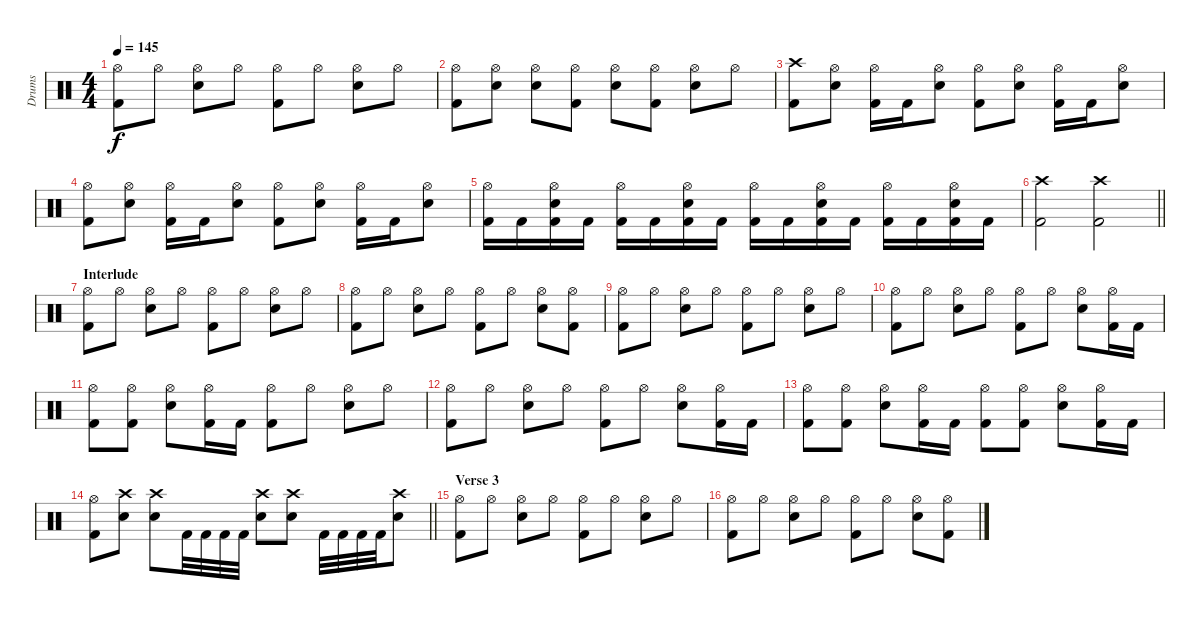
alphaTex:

\track ("Drums" "Drums") {instrument percussion}
\staff {score}
\articulation defaults
\ts (4 4)
\tempo 145
\clef neutral
\ks c
("Hi-Hat (open)" "Kick (hit) 2").8{dy f} "Hi-Hat (open)".8 ("Hi-Hat (open)" "Snare (hit) 2").8 "Hi-Hat (open)".8 ("Hi-Hat (open)" "Kick (hit) 2").8 "Hi-Hat (open)".8 ("Hi-Hat (open)" "Snare (hit) 2").8 "Hi-Hat (open)".8 |
("Hi-Hat (open)" "Kick (hit) 2").8 ("Hi-Hat (open)" "Snare (hit) 2").8 ("Hi-Hat (open)" "Snare (hit) 2").8 ("Hi-Hat (open)" "Kick (hit) 2").8 ("Hi-Hat (open)" "Snare (hit) 2").8 ("Hi-Hat (open)" "Kick (hit) 2").8 ("Hi-Hat (open)" "Snare (hit) 2").8 "Hi-Hat (open)".8 |
("Crash high (hit)" "Kick (hit) 2").8 ("Hi-Hat (open)" "Snare (hit) 2").8 ("Hi-Hat (open)" "Kick (hit) 2").16 "Kick (hit) 2".16 ("Hi-Hat (open)" "Snare (hit) 2").8 ("Hi-Hat (open)" "Kick (hit) 2").8 ("Hi-Hat (open)" "Snare (hit) 2").8 ("Hi-Hat (open)" "Kick (hit) 2").16 "Kick (hit) 2".16 ("Hi-Hat (open)" "Snare (hit) 2").8 |
("Hi-Hat (open)" "Kick (hit) 2").8 ("Hi-Hat (open)" "Snare (hit) 2").8 ("Hi-Hat (open)" "Kick (hit) 2").16 "Kick (hit) 2".16 ("Hi-Hat (open)" "Snare (hit) 2").8 ("Hi-Hat (open)" "Kick (hit) 2").8 ("Hi-Hat (open)" "Snare (hit) 2").8 ("Hi-Hat (open)" "Kick (hit) 2").16 "Kick (hit) 2".16 ("Hi-Hat (open)" "Snare (hit) 2").8 |
("Hi-Hat (open)" "Kick (hit) 2").16 "Kick (hit) 2".16 ("Hi-Hat (open)" "Kick (hit) 2" "Snare (hit) 2").16 "Kick (hit) 2".16 ("Hi-Hat (open)" "Kick (hit) 2").16 "Kick (hit) 2".16 ("Hi-Hat (open)" "Kick (hit) 2" "Snare (hit) 2").16 "Kick (hit) 2".16 ("Hi-Hat (open)" "Kick (hit) 2").16 "Kick (hit) 2".16 ("Hi-Hat (open)" "Kick (hit) 2" "Snare (hit) 2").16 "Kick (hit) 2".16 ("Hi-Hat (open)" "Kick (hit) 2").16 "Kick (hit) 2".16 ("Hi-Hat (open)" "Kick (hit) 2" "Snare (hit) 2").16 "Kick (hit) 2".16 |
\barLineRight lightlight
("Crash high (hit)" "Kick (hit) 2").2 ("Crash high (hit)" "Kick (hit) 2").2 |
\section ("" "Interlude")
("Hi-Hat (open)" "Kick (hit) 2").8 "Hi-Hat (open)".8 ("Hi-Hat (open)" "Snare (hit) 2").8 "Hi-Hat (open)".8 ("Hi-Hat (open)" "Kick (hit) 2").8 "Hi-Hat (open)".8 ("Hi-Hat (open)" "Snare (hit) 2").8 "Hi-Hat (open)".8 |
("Hi-Hat (open)" "Kick (hit) 2").8 "Hi-Hat (open)".8 ("Hi-Hat (open)" "Snare (hit) 2").8 "Hi-Hat (open)".8 ("Hi-Hat (open)" "Kick (hit) 2").8 "Hi-Hat (open)".8 ("Hi-Hat (open)" "Snare (hit) 2").8 ("Hi-Hat (open)" "Kick (hit) 2").8 |
("Hi-Hat (open)" "Kick (hit) 2").8 "Hi-Hat (open)".8 ("Hi-Hat (open)" "Snare (hit) 2").8 "Hi-Hat (open)".8 ("Hi-Hat (open)" "Kick (hit) 2").8 "Hi-Hat (open)".8 ("Hi-Hat (open)" "Snare (hit) 2").8 "Hi-Hat (open)".8 |
("Hi-Hat (open)" "Kick (hit) 2").8 "Hi-Hat (open)".8 ("Hi-Hat (open)" "Snare (hit) 2").8 "Hi-Hat (open)".8 ("Hi-Hat (open)" "Kick (hit) 2").8 "Hi-Hat (open)".8 ("Hi-Hat (open)" "Snare (hit) 2").8 ("Hi-Hat (open)" "Kick (hit) 2").16 "Kick (hit) 2".16 |
("Hi-Hat (open)" "Kick (hit) 2").8 ("Hi-Hat (open)" "Kick (hit) 2").8 ("Hi-Hat (open)" "Snare (hit) 2").8 ("Hi-Hat (open)" "Kick (hit) 2").16 "Kick (hit) 2".16 ("Hi-Hat (open)" "Kick (hit) 2").8 "Hi-Hat (open)".8 ("Hi-Hat (open)" "Snare (hit) 2").8 "Hi-Hat (open)".8 |
("Hi-Hat (open)" "Kick (hit) 2").8 "Hi-Hat (open)".8 ("Hi-Hat (open)" "Snare (hit) 2").8 "Hi-Hat (open)".8 ("Hi-Hat (open)" "Kick (hit) 2").8 "Hi-Hat (open)".8 ("Hi-Hat (open)" "Snare (hit) 2").8 ("Hi-Hat (open)" "Kick (hit) 2").16 "Kick (hit) 2".16 |
("Hi-Hat (open)" "Kick (hit) 2").8 ("Hi-Hat (open)" "Kick (hit) 2").8 ("Hi-Hat (open)" "Snare (hit) 2").8 ("Hi-Hat (open)" "Kick (hit) 2").16 "Kick (hit) 2".16 ("Hi-Hat (open)" "Kick (hit) 2").8 ("Hi-Hat (open)" "Kick (hit) 2").8 ("Hi-Hat (open)" "Snare (hit) 2").8 ("Hi-Hat (open)" "Kick (hit) 2").16 "Kick (hit) 2".16 |
\barLineRight lightlight
("Hi-Hat (open)" "Kick (hit) 2").8 ("Crash high (hit)" "Snare (hit) 2").8 ("Crash high (hit)" "Snare (hit) 2").8 "Kick (hit) 2".32 "Kick (hit) 2".32 "Kick (hit) 2".32 "Kick (hit) 2".32 ("Crash high (hit)" "Snare (hit) 2").8 ("Crash high (hit)" "Snare (hit) 2").8 "Kick (hit) 2".32 "Kick (hit) 2".32 "Kick (hit) 2".32 "Kick (hit) 2".32 ("Crash high (hit)" "Snare (hit) 2").8 |
\section ("" "Verse 3")
("Hi-Hat (open)" "Kick (hit) 2").8 "Hi-Hat (open)".8 ("Hi-Hat (open)" "Snare (hit) 2").8 "Hi-Hat (open)".8 ("Hi-Hat (open)" "Kick (hit) 2").8 "Hi-Hat (open)".8 ("Hi-Hat (open)" "Snare (hit) 2").8 "Hi-Hat (open)".8 |
("Hi-Hat (open)" "Kick (hit) 2").8 "Hi-Hat (open)".8 ("Hi-Hat (open)" "Snare (hit) 2").8 "Hi-Hat (open)".8 ("Hi-Hat (open)" "Kick (hit) 2").8 "Hi-Hat (open)".8 ("Hi-Hat (open)" "Snare (hit) 2").8 ("Hi-Hat (open)" "Kick (hit) 2").8
